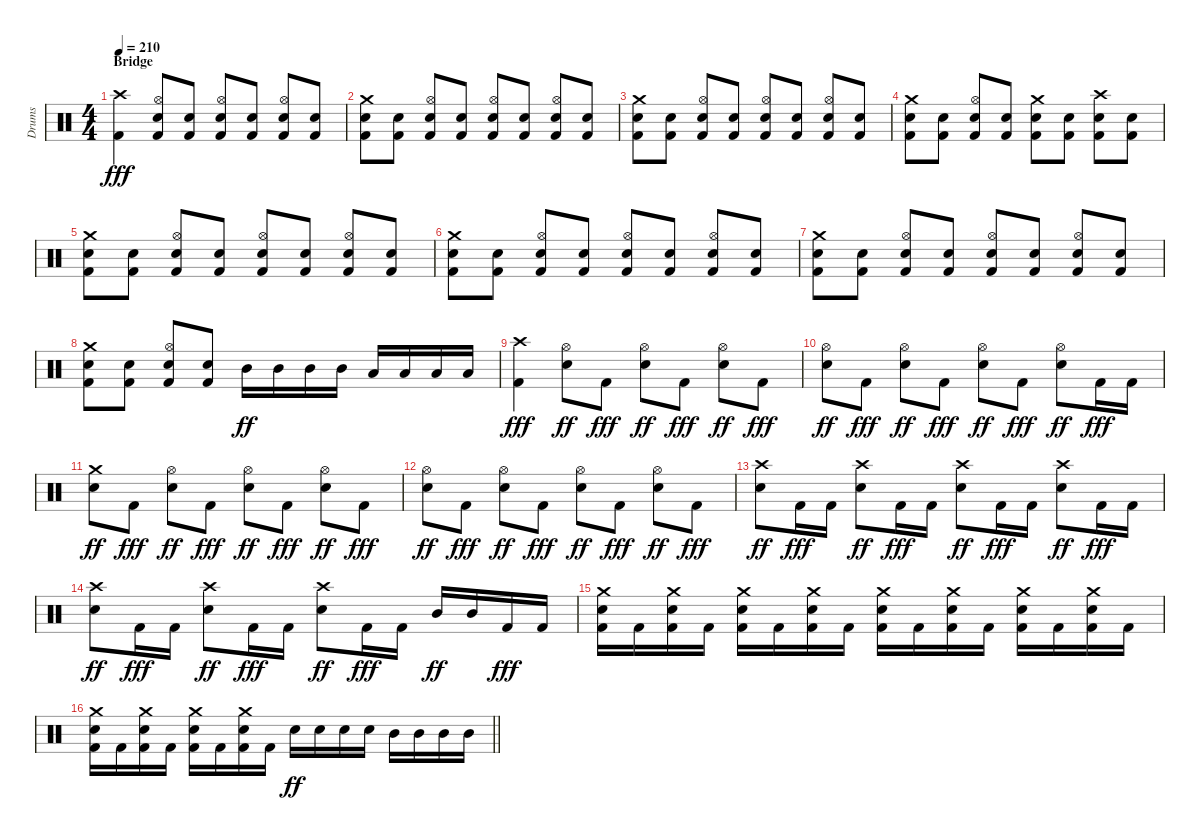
\track ("Drums" "Drums") {instrument percussion}
\staff {score}
\articulation defaults
\ts (4 4)
\section ("" "Bridge")
\tempo 210
\clef neutral
\ks c
("Crash high (hit)" "Kick (hit) 2").4{dy fff} ("Hi-Hat (open)" "Snare (hit) 2" "Kick (hit) 2").8 ("Snare (hit) 2" "Kick (hit) 2").8 ("Hi-Hat (open)" "Snare (hit) 2" "Kick (hit) 2").8 ("Snare (hit) 2" "Kick (hit) 2").8 ("Hi-Hat (open)" "Snare (hit) 2" "Kick (hit) 2").8 ("Snare (hit) 2" "Kick (hit) 2").8 |
("Crash medium (hit)" "Snare (hit) 2" "Kick (hit) 2").8 ("Snare (hit) 2" "Kick (hit) 2").8 ("Hi-Hat (open)" "Snare (hit) 2" "Kick (hit) 2").8 ("Snare (hit) 2" "Kick (hit) 2").8 ("Hi-Hat (open)" "Snare (hit) 2" "Kick (hit) 2").8 ("Snare (hit) 2" "Kick (hit) 2").8 ("Hi-Hat (open)" "Snare (hit) 2" "Kick (hit) 2").8 ("Snare (hit) 2" "Kick (hit) 2").8 |
("Crash medium (hit)" "Snare (hit) 2" "Kick (hit) 2").8 ("Snare (hit) 2" "Kick (hit) 2").8 ("Hi-Hat (open)" "Snare (hit) 2" "Kick (hit) 2").8 ("Snare (hit) 2" "Kick (hit) 2").8 ("Hi-Hat (open)" "Snare (hit) 2" "Kick (hit) 2").8 ("Snare (hit) 2" "Kick (hit) 2").8 ("Hi-Hat (open)" "Snare (hit) 2" "Kick (hit) 2").8 ("Snare (hit) 2" "Kick (hit) 2").8 |
("Crash medium (hit)" "Snare (hit) 2" "Kick (hit) 2").8 ("Snare (hit) 2" "Kick (hit) 2").8 ("Hi-Hat (open)" "Snare (hit) 2" "Kick (hit) 2").8 ("Snare (hit) 2" "Kick (hit) 2").8 ("Crash medium (hit)" "Snare (hit) 2" "Kick (hit) 2").8 ("Snare (hit) 2" "Kick (hit) 2").8 ("Crash high (hit)" "Snare (hit) 2" "Kick (hit) 2").8 ("Snare (hit) 2" "Kick (hit) 2").8 |
("Crash medium (hit)" "Snare (hit) 2" "Kick (hit) 2").8 ("Snare (hit) 2" "Kick (hit) 2").8 ("Hi-Hat (open)" "Snare (hit) 2" "Kick (hit) 2").8 ("Snare (hit) 2" "Kick (hit) 2").8 ("Hi-Hat (open)" "Snare (hit) 2" "Kick (hit) 2").8 ("Snare (hit) 2" "Kick (hit) 2").8 ("Hi-Hat (open)" "Snare (hit) 2" "Kick (hit) 2").8 ("Snare (hit) 2" "Kick (hit) 2").8 |
("Crash medium (hit)" "Snare (hit) 2" "Kick (hit) 2").8 ("Snare (hit) 2" "Kick (hit) 2").8 ("Hi-Hat (open)" "Snare (hit) 2" "Kick (hit) 2").8 ("Snare (hit) 2" "Kick (hit) 2").8 ("Hi-Hat (open)" "Snare (hit) 2" "Kick (hit) 2").8 ("Snare (hit) 2" "Kick (hit) 2").8 ("Hi-Hat (open)" "Snare (hit) 2" "Kick (hit) 2").8 ("Snare (hit) 2" "Kick (hit) 2").8 |
("Crash medium (hit)" "Snare (hit) 2" "Kick (hit) 2").8 ("Snare (hit) 2" "Kick (hit) 2").8 ("Hi-Hat (open)" "Snare (hit) 2" "Kick (hit) 2").8 ("Snare (hit) 2" "Kick (hit) 2").8 ("Hi-Hat (open)" "Snare (hit) 2" "Kick (hit) 2").8 ("Snare (hit) 2" "Kick (hit) 2").8 ("Hi-Hat (open)" "Snare (hit) 2" "Kick (hit) 2").8 ("Snare (hit) 2" "Kick (hit) 2").8 |
("Crash medium (hit)" "Snare (hit) 2" "Kick (hit) 2").8 ("Snare (hit) 2" "Kick (hit) 2").8 ("Hi-Hat (open)" "Snare (hit) 2" "Kick (hit) 2").8 ("Snare (hit) 2" "Kick (hit) 2").8 "Mid Tom (hit)".16{dy ff} "Mid Tom (hit)".16 "Mid Tom (hit)".16 "Mid Tom (hit)".16 "Low Tom (hit)".16 "Low Tom (hit)".16 "Low Tom (hit)".16 "Low Tom (hit)".16 |
("Crash high (hit)" "Kick (hit) 2").4{dy fff} ("Hi-Hat (open)" "Snare (hit) 2").8{dy ff} "Kick (hit) 2".8{dy fff} ("Hi-Hat (open)" "Snare (hit) 2").8{dy ff} "Kick (hit) 2".8{dy fff} ("Hi-Hat (open)" "Snare (hit) 2").8{dy ff} "Kick (hit) 2".8{dy fff} |
("Hi-Hat (open)" "Snare (hit) 2").8{dy ff} "Kick (hit) 2".8{dy fff} ("Hi-Hat (open)" "Snare (hit) 2").8{dy ff} "Kick (hit) 2".8{dy fff} ("Hi-Hat (open)" "Snare (hit) 2").8{dy ff} "Kick (hit) 2".8{dy fff} ("Hi-Hat (open)" "Snare (hit) 2").8{dy ff} "Kick (hit) 2".16{dy fff} "Kick (hit) 2".16 |
("Crash medium (hit)" "Snare (hit) 2").8{dy ff} "Kick (hit) 2".8{dy fff} ("Hi-Hat (open)" "Snare (hit) 2").8{dy ff} "Kick (hit) 2".8{dy fff} ("Hi-Hat (open)" "Snare (hit) 2").8{dy ff} "Kick (hit) 2".8{dy fff} ("Hi-Hat (open)" "Snare (hit) 2").8{dy ff} "Kick (hit) 2".8{dy fff} |
("Hi-Hat (open)" "Snare (hit) 2").8{dy ff} "Kick (hit) 2".8{dy fff} ("Hi-Hat (open)" "Snare (hit) 2").8{dy ff} "Kick (hit) 2".8{dy fff} ("Hi-Hat (open)" "Snare (hit) 2").8{dy ff} "Kick (hit) 2".8{dy fff} ("Hi-Hat (open)" "Snare (hit) 2").8{dy ff} "Kick (hit) 2".8{dy fff} |
("Crash high (hit)" "Snare (hit) 2").8{dy ff} "Kick (hit) 2".16{dy fff} "Kick (hit) 2".16 ("Crash high (hit)" "Snare (hit) 2").8{dy ff} "Kick (hit) 2".16{dy fff} "Kick (hit) 2".16 ("Crash high (hit)" "Snare (hit) 2").8{dy ff} "Kick (hit) 2".16{dy fff} "Kick (hit) 2".16 ("Crash high (hit)" "Snare (hit) 2").8{dy ff} "Kick (hit) 2".16{dy fff} "Kick (hit) 2".16 |
("Crash high (hit)" "Snare (hit) 2").8{dy ff} "Kick (hit) 2".16{dy fff} "Kick (hit) 2".16 ("Crash high (hit)" "Snare (hit) 2").8{dy ff} "Kick (hit) 2".16{dy fff} "Kick (hit) 2".16 ("Crash high (hit)" "Snare (hit) 2").8{dy ff} "Kick (hit) 2".16{dy fff} "Kick (hit) 2".16 "Mid Tom (hit)".16{dy ff} "Mid Tom (hit)".16 "Kick (hit) 2".16{dy fff} "Kick (hit) 2".16 |
("Crash medium (hit)" "Snare (hit) 2" "Kick (hit) 2").16 "Kick (hit) 2".16 ("Crash medium (hit)" "Snare (hit) 2" "Kick (hit) 2").16 "Kick (hit) 2".16 ("Crash medium (hit)" "Snare (hit) 2" "Kick (hit) 2").16 "Kick (hit) 2".16 ("Crash medium (hit)" "Snare (hit) 2" "Kick (hit) 2").16 "Kick (hit) 2".16 ("Crash medium (hit)" "Snare (hit) 2" "Kick (hit) 2").16 "Kick (hit) 2".16 ("Crash medium (hit)" "Snare (hit) 2" "Kick (hit) 2").16 "Kick (hit) 2".16 ("Crash medium (hit)" "Snare (hit) 2" "Kick (hit) 2").16 "Kick (hit) 2".16 ("Crash medium (hit)" "Snare (hit) 2" "Kick (hit) 2").16 "Kick (hit) 2".16 |
\barLineRight lightlight
("Crash medium (hit)" "Snare (hit) 2" "Kick (hit) 2").16 "Kick (hit) 2".16 ("Crash medium (hit)" "Snare (hit) 2" "Kick (hit) 2").16 "Kick (hit) 2".16 ("Crash medium (hit)" "Snare (hit) 2" "Kick (hit) 2").16 "Kick (hit) 2".16 ("Crash medium (hit)" "Snare (hit) 2" "Kick (hit) 2").16 "Kick (hit) 2".16 "Snare (hit) 2".16{dy ff} "Snare (hit) 2".16 "Snare (hit) 2".16 "Snare (hit) 2".16 "Mid Tom (hit)".16 "Mid Tom (hit)".16 "Mid Tom (hit)".16 "Mid Tom (hit)".16
